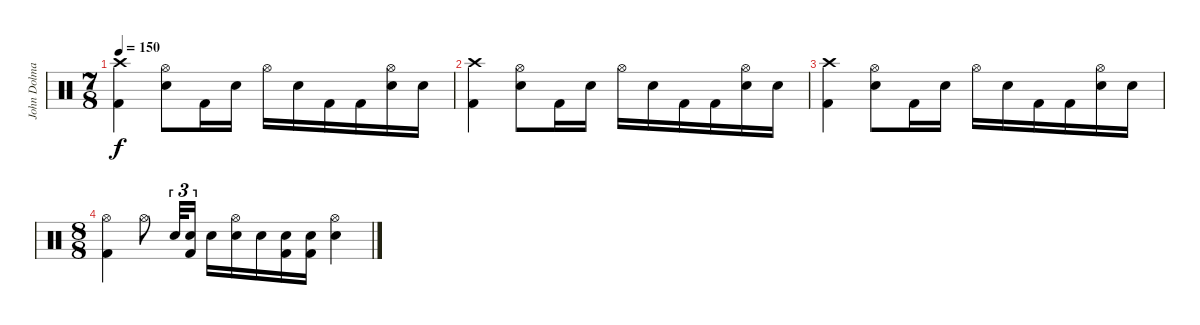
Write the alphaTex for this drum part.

\track ("John Dolmayan" "John Dolma") {instrument percussion}
\staff {score}
\articulation defaults
\ts (7 8)
\tempo 150
\clef neutral
\ks c
("Crash high (hit)" "Kick (hit) 2").4{dy f} ("Hi-Hat (open)" "Electric Snare (hit)").8 "Kick (hit) 2".16 "Electric Snare (hit)".16 "Hi-Hat (open)".16 "Electric Snare (hit)".16 "Kick (hit) 2".16 "Kick (hit) 2".16 ("Hi-Hat (open)" "Electric Snare (hit)").16 "Electric Snare (hit)".16 |
("Crash high (hit)" "Kick (hit) 2").4 ("Hi-Hat (open)" "Electric Snare (hit)").8 "Kick (hit) 2".16 "Electric Snare (hit)".16 "Hi-Hat (open)".16 "Electric Snare (hit)".16 "Kick (hit) 2".16 "Kick (hit) 2".16 ("Hi-Hat (open)" "Electric Snare (hit)").16 "Electric Snare (hit)".16 |
("Crash high (hit)" "Kick (hit) 2").4 ("Hi-Hat (open)" "Electric Snare (hit)").8 "Kick (hit) 2".16 "Electric Snare (hit)".16 "Hi-Hat (open)".16 "Electric Snare (hit)".16 "Kick (hit) 2".16 "Kick (hit) 2".16 ("Hi-Hat (open)" "Electric Snare (hit)").16 "Electric Snare (hit)".16 |
\ts (8 8)
("Hi-Hat (open)" "Kick (hit) 2").4 "Hi-Hat (open)".8 "Electric Snare (hit)".32{tu (3 2)} ("Electric Snare (hit)" "Kick (hit) 2").16{tu (3 2) beam splitsecondary} "Electric Snare (hit)".16 ("Hi-Hat (open)" "Electric Snare (hit)").16 "Electric Snare (hit)".16 ("Electric Snare (hit)" "Kick (hit) 2").16 ("Electric Snare (hit)" "Kick (hit) 2").16 ("Hi-Hat (open)" "Electric Snare (hit)").4
